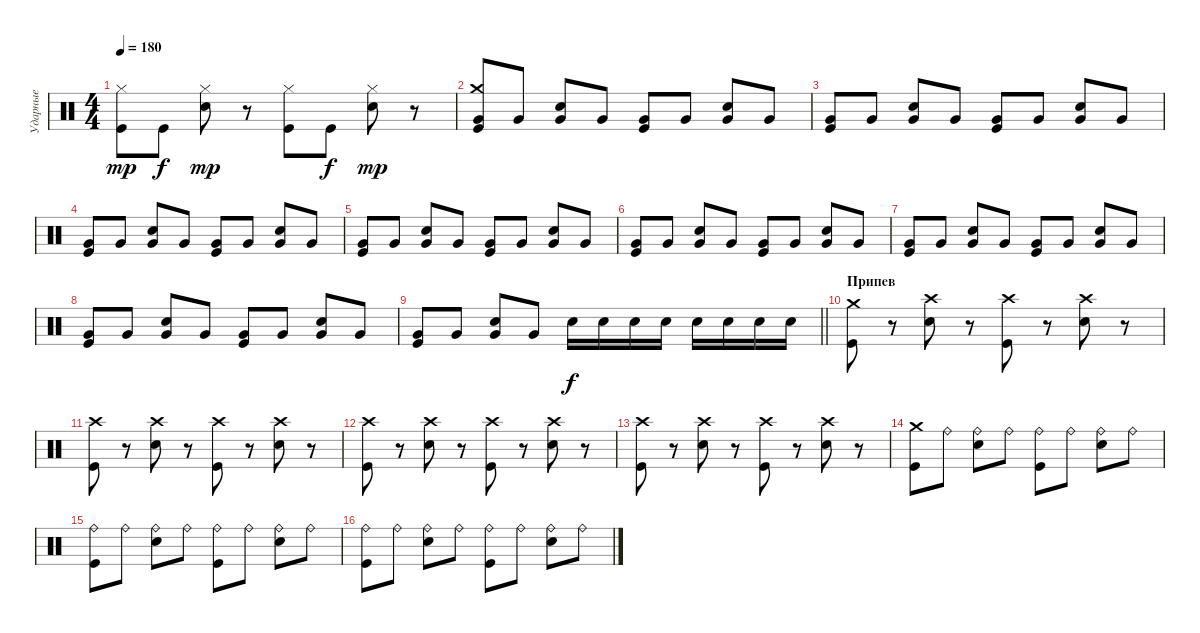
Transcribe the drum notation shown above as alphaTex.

\track ("Ударные" "Ударные") {instrument percussion}
\staff {score}
\articulation defaults
\ts (4 4)
\tempo 180
\clef neutral
\ks c
("Hi-Hat (closed)" "Kick (hit)").8{dy mp} "Kick (hit)".8{dy f} ("Hi-Hat (closed)" "Electric Snare (hit)").8{dy mp} r.8 ("Hi-Hat (closed)" "Kick (hit)").8 "Kick (hit)".8{dy f} ("Hi-Hat (closed)" "Electric Snare (hit)").8{dy mp} r.8 |
("Crash medium (hit)" "Kick (hit)" "Very Low Tom (hit)").8 "Very Low Tom (hit)".8 ("Electric Snare (hit)" "Very Low Tom (hit)").8 "Very Low Tom (hit)".8 ("Kick (hit)" "Very Low Tom (hit)").8 "Very Low Tom (hit)".8 ("Electric Snare (hit)" "Very Low Tom (hit)").8 "Very Low Tom (hit)".8 |
("Kick (hit)" "Very Low Tom (hit)").8 "Very Low Tom (hit)".8 ("Electric Snare (hit)" "Very Low Tom (hit)").8 "Very Low Tom (hit)".8 ("Kick (hit)" "Very Low Tom (hit)").8 "Very Low Tom (hit)".8 ("Electric Snare (hit)" "Very Low Tom (hit)").8 "Very Low Tom (hit)".8 |
("Kick (hit)" "Very Low Tom (hit)").8 "Very Low Tom (hit)".8 ("Electric Snare (hit)" "Very Low Tom (hit)").8 "Very Low Tom (hit)".8 ("Kick (hit)" "Very Low Tom (hit)").8 "Very Low Tom (hit)".8 ("Electric Snare (hit)" "Very Low Tom (hit)").8 "Very Low Tom (hit)".8 |
("Kick (hit)" "Very Low Tom (hit)").8 "Very Low Tom (hit)".8 ("Electric Snare (hit)" "Very Low Tom (hit)").8 "Very Low Tom (hit)".8 ("Kick (hit)" "Very Low Tom (hit)").8 "Very Low Tom (hit)".8 ("Electric Snare (hit)" "Very Low Tom (hit)").8 "Very Low Tom (hit)".8 |
("Kick (hit)" "Very Low Tom (hit)").8 "Very Low Tom (hit)".8 ("Electric Snare (hit)" "Very Low Tom (hit)").8 "Very Low Tom (hit)".8 ("Kick (hit)" "Very Low Tom (hit)").8 "Very Low Tom (hit)".8 ("Electric Snare (hit)" "Very Low Tom (hit)").8 "Very Low Tom (hit)".8 |
("Kick (hit)" "Very Low Tom (hit)").8 "Very Low Tom (hit)".8 ("Electric Snare (hit)" "Very Low Tom (hit)").8 "Very Low Tom (hit)".8 ("Kick (hit)" "Very Low Tom (hit)").8 "Very Low Tom (hit)".8 ("Electric Snare (hit)" "Very Low Tom (hit)").8 "Very Low Tom (hit)".8 |
("Kick (hit)" "Very Low Tom (hit)").8 "Very Low Tom (hit)".8 ("Electric Snare (hit)" "Very Low Tom (hit)").8 "Very Low Tom (hit)".8 ("Kick (hit)" "Very Low Tom (hit)").8 "Very Low Tom (hit)".8 ("Electric Snare (hit)" "Very Low Tom (hit)").8 "Very Low Tom (hit)".8 |
\barLineRight lightlight
("Kick (hit)" "Very Low Tom (hit)").8 "Very Low Tom (hit)".8 ("Electric Snare (hit)" "Very Low Tom (hit)").8 "Very Low Tom (hit)".8 "Electric Snare (hit)".16{dy f} "Electric Snare (hit)".16 "Electric Snare (hit)".16 "Electric Snare (hit)".16 "Electric Snare (hit)".16 "Electric Snare (hit)".16 "Electric Snare (hit)".16 "Electric Snare (hit)".16 |
\section ("" "Припев")
("Crash medium (hit)" "Kick (hit)").8 r.8 ("Crash high (hit)" "Electric Snare (hit)").8 r.8 ("Crash high (hit)" "Kick (hit)").8 r.8 ("Crash high (hit)" "Electric Snare (hit)").8 r.8 |
("Crash high (hit)" "Kick (hit)").8 r.8 ("Crash high (hit)" "Electric Snare (hit)").8 r.8 ("Crash high (hit)" "Kick (hit)").8 r.8 ("Crash high (hit)" "Electric Snare (hit)").8 r.8 |
("Crash high (hit)" "Kick (hit)").8 r.8 ("Crash high (hit)" "Electric Snare (hit)").8 r.8 ("Crash high (hit)" "Kick (hit)").8 r.8 ("Crash high (hit)" "Electric Snare (hit)").8 r.8 |
("Crash high (hit)" "Kick (hit)").8 r.8 ("Crash high (hit)" "Electric Snare (hit)").8 r.8 ("Crash high (hit)" "Kick (hit)").8 r.8 ("Crash high (hit)" "Electric Snare (hit)").8 r.8 |
("Crash medium (hit)" "Kick (hit)").8 "Ride (bell)".8 ("Ride (bell)" "Electric Snare (hit)").8 "Ride (bell)".8 ("Ride (bell)" "Kick (hit)").8 "Ride (bell)".8 ("Ride (bell)" "Electric Snare (hit)").8 "Ride (bell)".8 |
("Ride (bell)" "Kick (hit)").8 "Ride (bell)".8 ("Ride (bell)" "Electric Snare (hit)").8 "Ride (bell)".8 ("Ride (bell)" "Kick (hit)").8 "Ride (bell)".8 ("Ride (bell)" "Electric Snare (hit)").8 "Ride (bell)".8 |
("Ride (bell)" "Kick (hit)").8 "Ride (bell)".8 ("Ride (bell)" "Electric Snare (hit)").8 "Ride (bell)".8 ("Ride (bell)" "Kick (hit)").8 "Ride (bell)".8 ("Ride (bell)" "Electric Snare (hit)").8 "Ride (bell)".8
